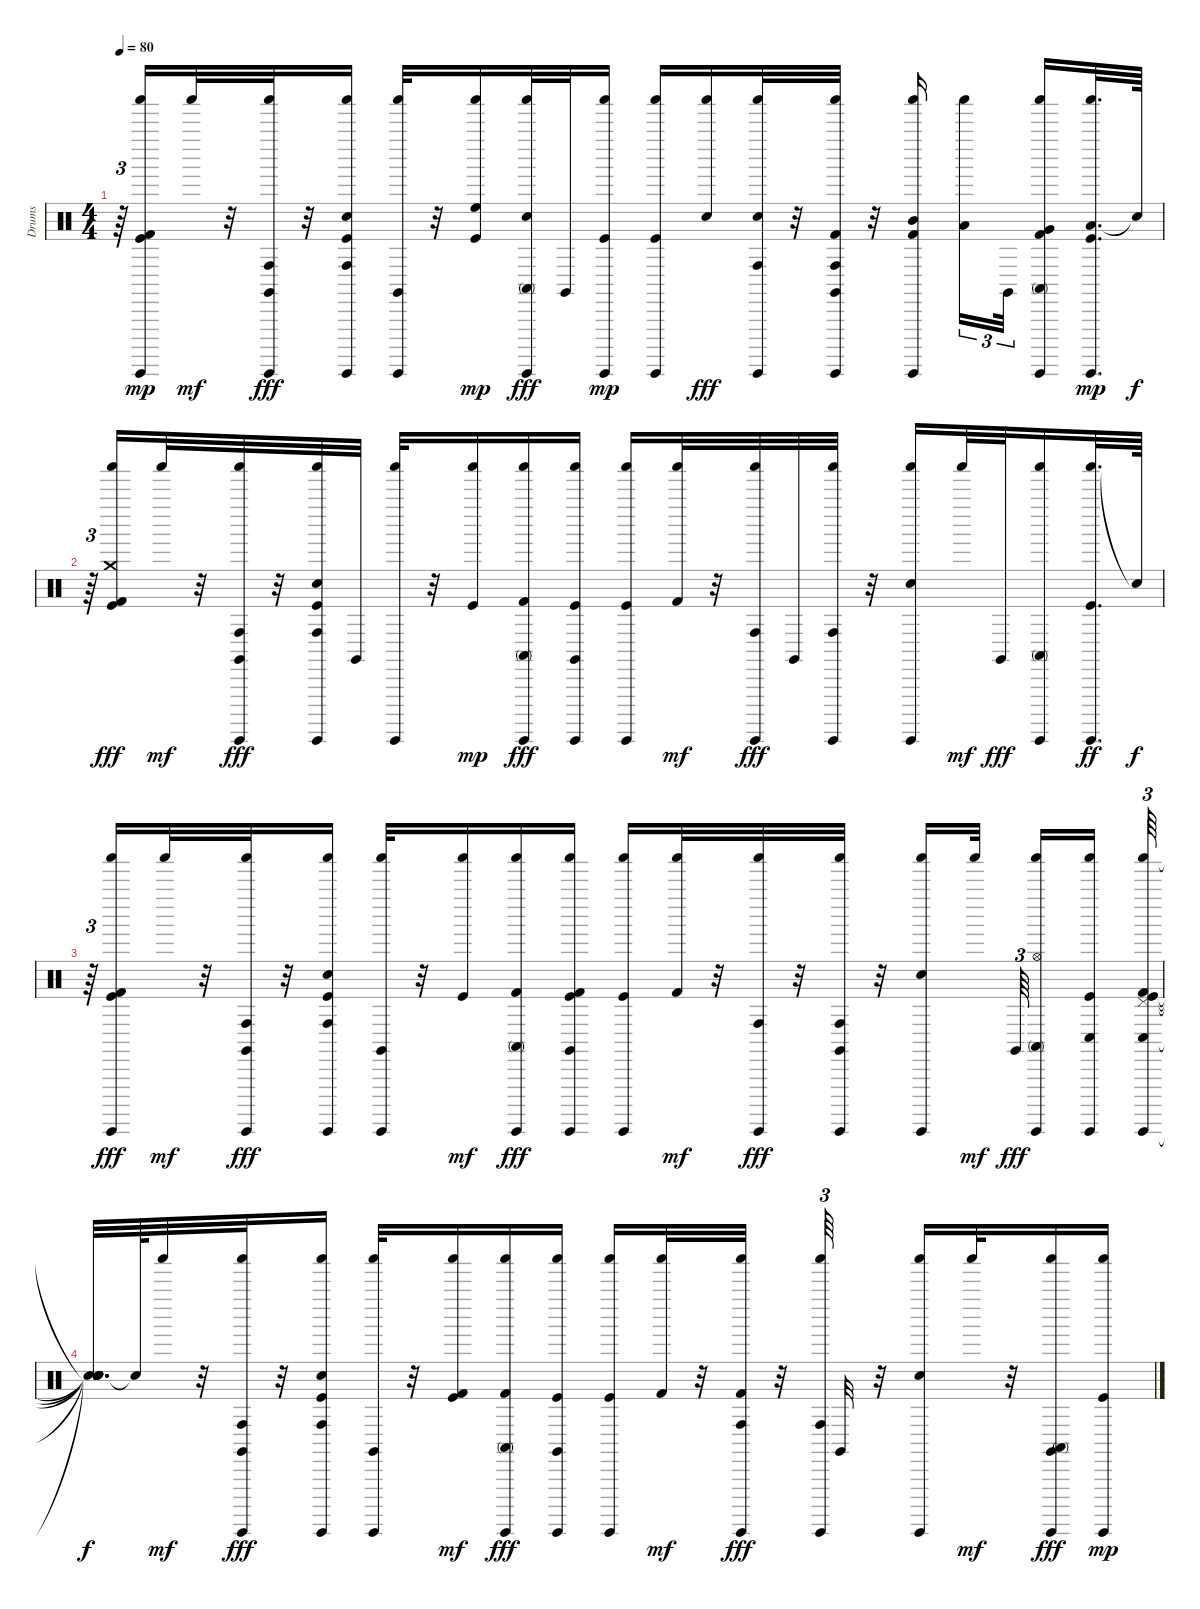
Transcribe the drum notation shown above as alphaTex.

\track ("Drums" "Drums") {instrument percussion}
\staff {score}
\articulation defaults
\ts (4 4)
\tempo 80
\clef neutral
\ks c
r.64{tu (3 2) dy f} ("Kick (hit) 2" "Guiro (hit)" "Shaker (hit)" "Kick (hit)").16{dy mp} "Shaker (hit)".32{dy mf} r.32 ("Claves (hit)" "Guiro (hit)" "Shaker (hit)" "Conga high (hit)").32{dy fff} r.32 ("Guiro (hit)" "Shaker (hit)" "Kick (hit)" "Conga high (hit)" "Electric Snare (hit)").16 ("Claves (hit)" "Guiro (hit)" "Shaker (hit)").32 r.32 ("Shaker (hit)" "Kick (hit)" "High Floor Tom (hit)").16{dy mp} ("Guiro (hit)" "Shaker (hit)" "Conga high (mute)" "Electric Snare (hit)").32{dy fff} "Claves (hit)".32 ("Guiro (hit)" "Shaker (hit)" "Kick (hit)").16{dy mp} ("Guiro (hit)" "Shaker (hit)" "Kick (hit)").16 ("Shaker (hit)" "Electric Snare (hit)").16{dy fff} ("Guiro (hit)" "Shaker (hit)" "Conga high (hit)" "Electric Snare (hit)").32 r.32 ("Claves (hit)" "Kick (hit) 2" "Guiro (hit)" "Shaker (hit)" "Conga high (hit)").32 r.32 ("Mid Tom (hit)" "Kick (hit) 2" "Guiro (hit)" "Shaker (hit)").16 ("Shaker (hit)" "Low Tom (hit)").16{tu (3 2)} "Claves (hit)".32{tu (3 2)} ("Kick (hit) 2" "Guiro (hit)" "Shaker (hit)" "Conga high (mute)" "Very Low Tom (hit)").16 ("Low Floor Tom (hit)" "Guiro (hit)" "Shaker (hit)" "Kick (hit)").32{d dy mp} "Snare (hit)"{t}.64{dy f} |
r.64{tu (3 2)} ("Kick (hit) 2" "Shaker (hit)" "Kick (hit)" "Crash medium (hit)").16{dy fff} "Shaker (hit)".32{dy mf} r.32 ("Shaker (hit)" "Guiro (hit)" "Conga high (hit)" "Claves (hit)").32{dy fff} r.32 ("Electric Snare (hit)" "Shaker (hit)" "Kick (hit)" "Guiro (hit)" "Conga high (hit)").32 "Claves (hit)".32 ("Shaker (hit)" "Guiro (hit)").32 r.32 ("Shaker (hit)" "Kick (hit)").16{dy mp} ("Kick (hit) 2" "Shaker (hit)" "Guiro (hit)" "Conga high (mute)").16{dy fff} ("Shaker (hit)" "Kick (hit)" "Guiro (hit)" "Claves (hit)").16 ("Shaker (hit)" "Kick (hit)" "Guiro (hit)").16 ("Kick (hit) 2" "Shaker (hit)").32{dy mf} r.32 ("Shaker (hit)" "Guiro (hit)" "Conga high (hit)").32{dy fff} "Claves (hit)".32 ("Shaker (hit)" "Guiro (hit)" "Conga high (hit)").32 r.32 ("Electric Snare (hit)" "Shaker (hit)" "Guiro (hit)").16 "Shaker (hit)".32{dy mf} "Claves (hit)".32{dy fff} ("Shaker (hit)" "Guiro (hit)" "Conga high (mute)").16 ("Shaker (hit)" "Kick (hit)" "Guiro (hit)").32{d dy ff} "Snare (hit)"{t}.64{dy f} |
r.64{tu (3 2)} ("Kick (hit) 2" "Kick (hit)" "Guiro (hit)" "Shaker (hit)").16{dy fff} "Shaker (hit)".32{dy mf} r.32 ("Guiro (hit)" "Shaker (hit)" "Conga high (hit)" "Claves (hit)").32{dy fff} r.32 ("Electric Snare (hit)" "Kick (hit)" "Guiro (hit)" "Shaker (hit)" "Conga high (hit)").16 ("Claves (hit)" "Guiro (hit)" "Shaker (hit)").32 r.32 ("Kick (hit)" "Shaker (hit)").16{dy mf} ("Kick (hit) 2" "Guiro (hit)" "Shaker (hit)" "Conga high (mute)").16{dy fff} ("Kick (hit) 2" "Kick (hit)" "Guiro (hit)" "Shaker (hit)" "Claves (hit)").16 ("Kick (hit)" "Guiro (hit)" "Shaker (hit)").16 ("Kick (hit) 2" "Shaker (hit)").32{dy mf} r.32 ("Guiro (hit)" "Shaker (hit)" "Conga high (hit)").32{dy fff} r.32 ("Claves (hit)" "Guiro (hit)" "Shaker (hit)" "Conga high (hit)").32 r.32 ("Electric Snare (hit)" "Guiro (hit)" "Shaker (hit)").16 "Shaker (hit)".32{dy mf} "Claves (hit)".64{tu (3 2) dy fff} ("Guiro (hit)" "Shaker (hit)" "Hi-Hat (open)" "Conga high (mute)").16 ("Kick (hit)" "Guiro (hit)" "Shaker (hit)" "Conga low (hit)").16 ("Kick (hit) 2" "Kick (hit)" "Guiro (hit)" "Shaker (hit)" "Pedal Hi-Hat (hit)" "Conga low (hit)").64{tu (3 2)} |
("Snare (hit)"{t} "Snare (hit)"{t} "Snare (hit)"{t} "Snare (hit)"{t} "Snare (hit)"{t} "Snare (hit)"{t}).32{d dy f} "Snare (hit)"{t}.64 "Shaker (hit)".32{dy mf} r.32 ("Claves (hit)" "Guiro (hit)" "Shaker (hit)" "Conga high (hit)").32{dy fff} r.32 ("Electric Snare (hit)" "Kick (hit)" "Guiro (hit)" "Shaker (hit)" "Conga high (hit)").16 ("Claves (hit)" "Guiro (hit)" "Shaker (hit)").32 r.32 ("Kick (hit) 2" "Kick (hit)" "Shaker (hit)").16{dy mf} ("Kick (hit) 2" "Guiro (hit)" "Shaker (hit)" "Conga high (mute)").16{dy fff} ("Kick (hit)" "Guiro (hit)" "Shaker (hit)" "Claves (hit)").16 ("Kick (hit)" "Guiro (hit)" "Shaker (hit)").16 ("Kick (hit) 2" "Shaker (hit)").32{dy mf} r.32 ("Kick (hit) 2" "Guiro (hit)" "Shaker (hit)" "Conga high (hit)").32{dy fff} r.32 ("Guiro (hit)" "Shaker (hit)" "Conga high (hit)").64{tu (3 2)} "Claves (hit)".32 r.32 ("Electric Snare (hit)" "Guiro (hit)" "Shaker (hit)").16 "Shaker (hit)".32{dy mf} r.32 ("Guiro (hit)" "Shaker (hit)" "Conga high (mute)" "Claves (hit)").16{dy fff} ("Kick (hit)" "Guiro (hit)" "Shaker (hit)").16{dy mp}
